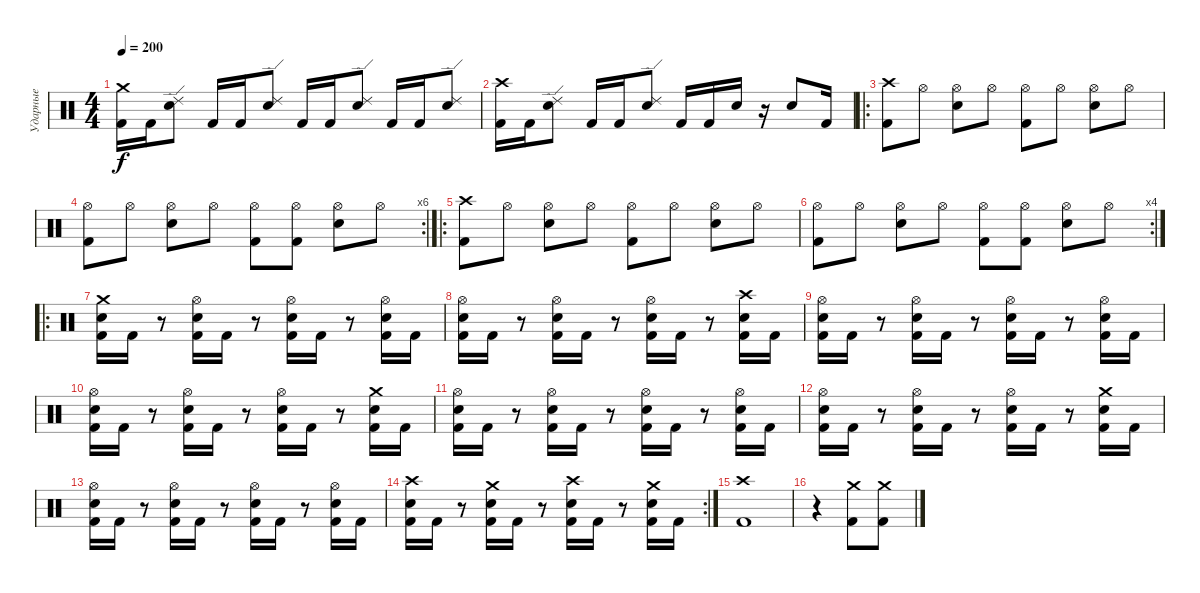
\track ("Ударные" "Ударные") {instrument percussion}
\staff {score}
\articulation defaults
\ts (4 4)
\tempo 200
\clef neutral
\ks c
("Crash medium (hit)" "Kick (hit) 2").16{dy f} "Kick (hit) 2".16 ("Ride (edge) 2" "Electric Snare (hit)").8 "Kick (hit) 2".16 "Kick (hit) 2".16 ("Ride (edge) 2" "Electric Snare (hit)").8 "Kick (hit) 2".16 "Kick (hit) 2".16 ("Ride (edge) 2" "Electric Snare (hit)").8 "Kick (hit) 2".16 "Kick (hit) 2".16 ("Ride (edge) 2" "Electric Snare (hit)").8 |
("Crash high (hit)" "Kick (hit) 2").16 "Kick (hit) 2".16 ("Ride (edge) 2" "Electric Snare (hit)").8 "Kick (hit) 2".16 "Kick (hit) 2".16 ("Ride (edge) 2" "Electric Snare (hit)").8 "Kick (hit) 2".16 "Kick (hit) 2".16 "Electric Snare (hit)".16 r.16 "Electric Snare (hit)".8 "Kick (hit) 2".16 |
\ro
("Crash high (hit)" "Kick (hit) 2").8 "Hi-Hat (open)".8 ("Hi-Hat (open)" "Electric Snare (hit)").8 "Hi-Hat (open)".8 ("Hi-Hat (open)" "Kick (hit) 2").8 "Hi-Hat (open)".8 ("Hi-Hat (open)" "Electric Snare (hit)").8 "Hi-Hat (open)".8 |
\rc 6
("Hi-Hat (open)" "Kick (hit) 2").8 "Hi-Hat (open)".8 ("Hi-Hat (open)" "Electric Snare (hit)").8 "Hi-Hat (open)".8 ("Hi-Hat (open)" "Kick (hit) 2").8 ("Hi-Hat (open)" "Kick (hit) 2").8 ("Hi-Hat (open)" "Electric Snare (hit)").8 "Hi-Hat (open)".8 |
\ro
("Crash high (hit)" "Kick (hit) 2").8 "Hi-Hat (open)".8 ("Hi-Hat (open)" "Electric Snare (hit)").8 "Hi-Hat (open)".8 ("Hi-Hat (open)" "Kick (hit) 2").8 "Hi-Hat (open)".8 ("Hi-Hat (open)" "Electric Snare (hit)").8 "Hi-Hat (open)".8 |
\rc 4
("Hi-Hat (open)" "Kick (hit) 2").8 "Hi-Hat (open)".8 ("Hi-Hat (open)" "Electric Snare (hit)").8 "Hi-Hat (open)".8 ("Hi-Hat (open)" "Kick (hit) 2").8 ("Hi-Hat (open)" "Kick (hit) 2").8 ("Hi-Hat (open)" "Electric Snare (hit)").8 "Hi-Hat (open)".8 |
\ro
("Crash medium (hit)" "Electric Snare (hit)" "Kick (hit) 2").16 "Kick (hit) 2".16 r.8 ("Hi-Hat (open)" "Electric Snare (hit)" "Kick (hit) 2").16 "Kick (hit) 2".16 r.8 ("Hi-Hat (open)" "Electric Snare (hit)" "Kick (hit) 2").16 "Kick (hit) 2".16 r.8 ("Hi-Hat (open)" "Electric Snare (hit)" "Kick (hit) 2").16 "Kick (hit) 2".16 |
("Hi-Hat (open)" "Electric Snare (hit)" "Kick (hit) 2").16 "Kick (hit) 2".16 r.8 ("Hi-Hat (open)" "Electric Snare (hit)" "Kick (hit) 2").16 "Kick (hit) 2".16 r.8 ("Hi-Hat (open)" "Electric Snare (hit)" "Kick (hit) 2").16 "Kick (hit) 2".16 r.8 ("Crash high (hit)" "Electric Snare (hit)" "Kick (hit) 2").16 "Kick (hit) 2".16 |
("Hi-Hat (open)" "Electric Snare (hit)" "Kick (hit) 2").16 "Kick (hit) 2".16 r.8 ("Hi-Hat (open)" "Electric Snare (hit)" "Kick (hit) 2").16 "Kick (hit) 2".16 r.8 ("Hi-Hat (open)" "Electric Snare (hit)" "Kick (hit) 2").16 "Kick (hit) 2".16 r.8 ("Hi-Hat (open)" "Electric Snare (hit)" "Kick (hit) 2").16 "Kick (hit) 2".16 |
("Hi-Hat (open)" "Electric Snare (hit)" "Kick (hit) 2").16 "Kick (hit) 2".16 r.8 ("Hi-Hat (open)" "Electric Snare (hit)" "Kick (hit) 2").16 "Kick (hit) 2".16 r.8 ("Hi-Hat (open)" "Electric Snare (hit)" "Kick (hit) 2").16 "Kick (hit) 2".16 r.8 ("Crash medium (hit)" "Electric Snare (hit)" "Kick (hit) 2").16 "Kick (hit) 2".16 |
("Hi-Hat (open)" "Electric Snare (hit)" "Kick (hit) 2").16 "Kick (hit) 2".16 r.8 ("Hi-Hat (open)" "Electric Snare (hit)" "Kick (hit) 2").16 "Kick (hit) 2".16 r.8 ("Hi-Hat (open)" "Electric Snare (hit)" "Kick (hit) 2").16 "Kick (hit) 2".16 r.8 ("Hi-Hat (open)" "Electric Snare (hit)" "Kick (hit) 2").16 "Kick (hit) 2".16 |
("Hi-Hat (open)" "Electric Snare (hit)" "Kick (hit) 2").16 "Kick (hit) 2".16 r.8 ("Hi-Hat (open)" "Electric Snare (hit)" "Kick (hit) 2").16 "Kick (hit) 2".16 r.8 ("Hi-Hat (open)" "Electric Snare (hit)" "Kick (hit) 2").16 "Kick (hit) 2".16 r.8 ("Crash medium (hit)" "Electric Snare (hit)" "Kick (hit) 2").16 "Kick (hit) 2".16 |
("Hi-Hat (open)" "Electric Snare (hit)" "Kick (hit) 2").16 "Kick (hit) 2".16 r.8 ("Hi-Hat (open)" "Electric Snare (hit)" "Kick (hit) 2").16 "Kick (hit) 2".16 r.8 ("Hi-Hat (open)" "Electric Snare (hit)" "Kick (hit) 2").16 "Kick (hit) 2".16 r.8 ("Hi-Hat (open)" "Electric Snare (hit)" "Kick (hit) 2").16 "Kick (hit) 2".16 |
\rc 2
("Crash high (hit)" "Electric Snare (hit)" "Kick (hit) 2").16 "Kick (hit) 2".16 r.8 ("Crash medium (hit)" "Electric Snare (hit)" "Kick (hit) 2").16 "Kick (hit) 2".16 r.8 ("Crash high (hit)" "Electric Snare (hit)" "Kick (hit) 2").16 "Kick (hit) 2".16 r.8 ("Crash medium (hit)" "Electric Snare (hit)" "Kick (hit) 2").16 "Kick (hit) 2".16 |
("Crash high (hit)" "Kick (hit) 2").1 |
r.4 ("Crash medium (hit)" "Kick (hit) 2").8 ("Crash medium (hit)" "Kick (hit) 2").8
